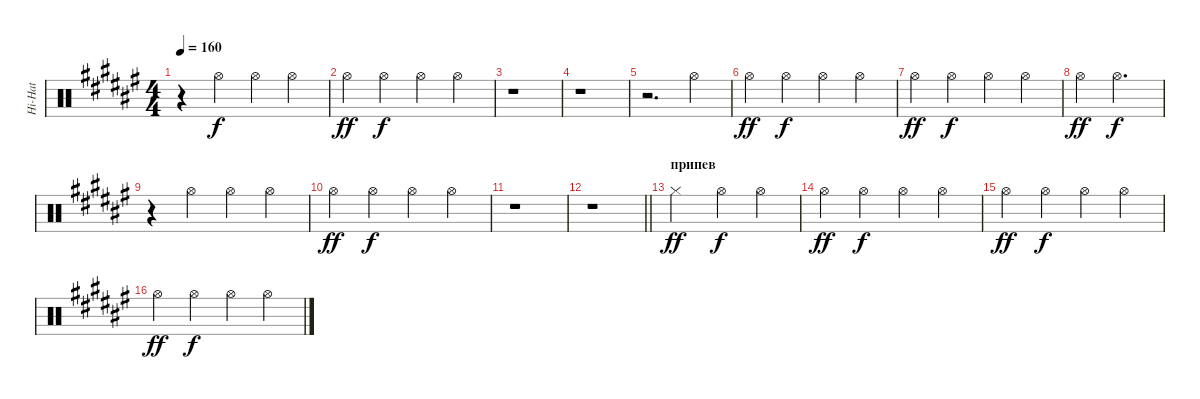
\track ("Hi-Hat" "Hi-Hat") {instrument percussion}
\staff {score}
\articulation defaults
\ts (4 4)
\tempo 160
\clef neutral
\ks d#minor
r.4{dy f} "Hi-Hat (open)".4 "Hi-Hat (open)".4 "Hi-Hat (open)".4 |
"Hi-Hat (open)".4{dy ff} "Hi-Hat (open)".4{dy f} "Hi-Hat (open)".4 "Hi-Hat (open)".4 |
r.1 |
r.1 |
r.2{d} "Hi-Hat (open)".4 |
"Hi-Hat (open)".4{dy ff} "Hi-Hat (open)".4{dy f} "Hi-Hat (open)".4 "Hi-Hat (open)".4 |
"Hi-Hat (open)".4{dy ff} "Hi-Hat (open)".4{dy f} "Hi-Hat (open)".4 "Hi-Hat (open)".4 |
"Hi-Hat (open)".4{dy ff} "Hi-Hat (open)".2{d dy f} |
r.4 "Hi-Hat (open)".4 "Hi-Hat (open)".4 "Hi-Hat (open)".4 |
"Hi-Hat (open)".4{dy ff} "Hi-Hat (open)".4{dy f} "Hi-Hat (open)".4 "Hi-Hat (open)".4 |
r.1 |
\barLineRight lightlight
r.1 |
\section ("" "припев")
"Hi-Hat (closed)".2{dy ff} "Hi-Hat (open)".4{dy f} "Hi-Hat (open)".4 |
"Hi-Hat (open)".4{dy ff} "Hi-Hat (open)".4{dy f} "Hi-Hat (open)".4 "Hi-Hat (open)".4 |
"Hi-Hat (open)".4{dy ff} "Hi-Hat (open)".4{dy f} "Hi-Hat (open)".4 "Hi-Hat (open)".4 |
"Hi-Hat (open)".4{dy ff} "Hi-Hat (open)".4{dy f} "Hi-Hat (open)".4 "Hi-Hat (open)".4
